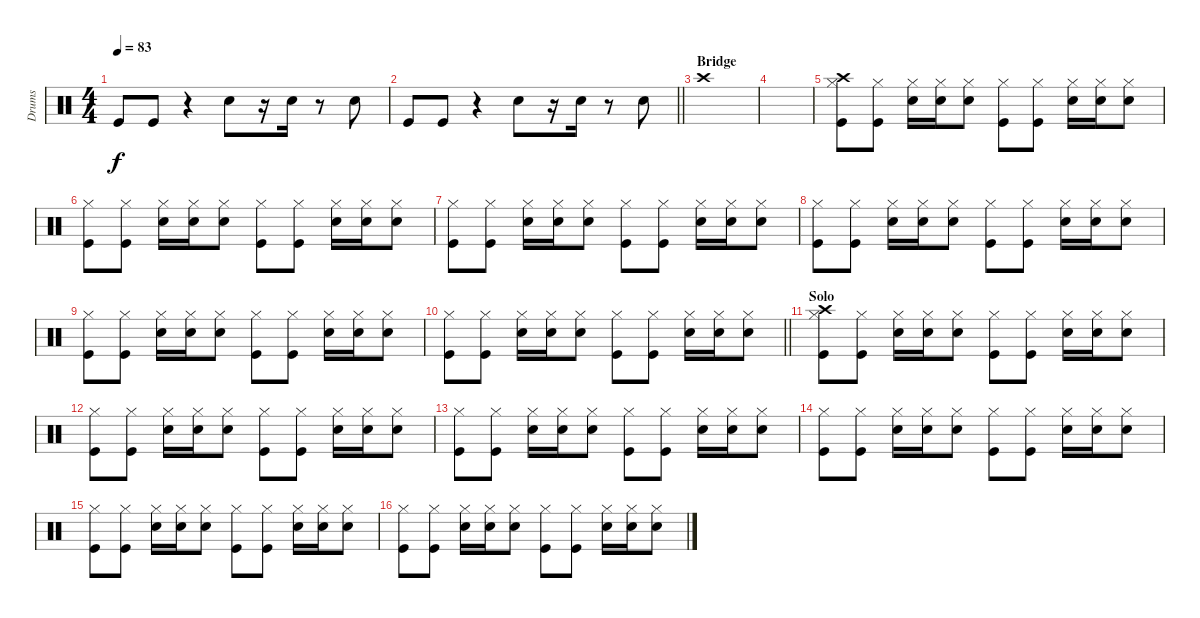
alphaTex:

\track ("Drums" "Drums") {instrument percussion}
\staff {score}
\articulation defaults
\ts (4 4)
\tempo 83
\clef neutral
\ks c "Kick (hit)".8{dy f} "Kick (hit)".8
r.4 "Snare (hit) 2".8 r.16 "Electric Snare (hit)".16 r.8 "Electric Snare (hit)".8 |
\barLineRight lightlight "Kick (hit)".8 "Kick (hit)".8
r.4 "Snare (hit) 2".8 r.16 "Electric Snare (hit)".16 r.8 "Electric Snare (hit)".8 |
\section ("" "Bridge")
"Crash high (hit)".1 |
|
("Crash high (hit)" "Hi-Hat (closed)" "Kick (hit)").8 ("Hi-Hat (closed)" "Kick (hit)").8 ("Hi-Hat (closed)" "Electric Snare (hit)").16 ("Hi-Hat (closed)" "Snare (hit) 2").16 ("Hi-Hat (closed)" "Snare (hit) 2").8 ("Hi-Hat (closed)" "Kick (hit)").8 ("Hi-Hat (closed)" "Kick (hit)").8 ("Hi-Hat (closed)" "Electric Snare (hit)").16 ("Hi-Hat (closed)" "Snare (hit) 2").16 ("Hi-Hat (closed)" "Snare (hit) 2").8 |
("Hi-Hat (closed)" "Kick (hit)").8 ("Hi-Hat (closed)" "Kick (hit)").8 ("Hi-Hat (closed)" "Electric Snare (hit)").16 ("Hi-Hat (closed)" "Snare (hit) 2").16 ("Hi-Hat (closed)" "Snare (hit) 2").8 ("Hi-Hat (closed)" "Kick (hit)").8 ("Hi-Hat (closed)" "Kick (hit)").8 ("Hi-Hat (closed)" "Electric Snare (hit)").16 ("Hi-Hat (closed)" "Snare (hit) 2").16 ("Hi-Hat (closed)" "Snare (hit) 2").8 |
("Hi-Hat (closed)" "Kick (hit)").8 ("Hi-Hat (closed)" "Kick (hit)").8 ("Hi-Hat (closed)" "Electric Snare (hit)").16 ("Hi-Hat (closed)" "Snare (hit) 2").16 ("Hi-Hat (closed)" "Snare (hit) 2").8 ("Hi-Hat (closed)" "Kick (hit)").8 ("Hi-Hat (closed)" "Kick (hit)").8 ("Hi-Hat (closed)" "Electric Snare (hit)").16 ("Hi-Hat (closed)" "Snare (hit) 2").16 ("Hi-Hat (closed)" "Snare (hit) 2").8 |
("Hi-Hat (closed)" "Kick (hit)").8 ("Hi-Hat (closed)" "Kick (hit)").8 ("Hi-Hat (closed)" "Electric Snare (hit)").16 ("Hi-Hat (closed)" "Snare (hit) 2").16 ("Hi-Hat (closed)" "Snare (hit) 2").8 ("Hi-Hat (closed)" "Kick (hit)").8 ("Hi-Hat (closed)" "Kick (hit)").8 ("Hi-Hat (closed)" "Electric Snare (hit)").16 ("Hi-Hat (closed)" "Snare (hit) 2").16 ("Hi-Hat (closed)" "Snare (hit) 2").8 |
("Hi-Hat (closed)" "Kick (hit)").8 ("Hi-Hat (closed)" "Kick (hit)").8 ("Hi-Hat (closed)" "Electric Snare (hit)").16 ("Hi-Hat (closed)" "Snare (hit) 2").16 ("Hi-Hat (closed)" "Snare (hit) 2").8 ("Hi-Hat (closed)" "Kick (hit)").8 ("Hi-Hat (closed)" "Kick (hit)").8 ("Hi-Hat (closed)" "Electric Snare (hit)").16 ("Hi-Hat (closed)" "Snare (hit) 2").16 ("Hi-Hat (closed)" "Snare (hit) 2").8 |
\barLineRight lightlight
("Hi-Hat (closed)" "Kick (hit)").8 ("Hi-Hat (closed)" "Kick (hit)").8 ("Hi-Hat (closed)" "Electric Snare (hit)").16 ("Hi-Hat (closed)" "Snare (hit) 2").16 ("Hi-Hat (closed)" "Snare (hit) 2").8 ("Hi-Hat (closed)" "Kick (hit)").8 ("Hi-Hat (closed)" "Kick (hit)").8 ("Hi-Hat (closed)" "Electric Snare (hit)").16 ("Hi-Hat (closed)" "Snare (hit) 2").16 ("Hi-Hat (closed)" "Snare (hit) 2").8 |
\section ("" "Solo")
("Crash high (hit)" "Hi-Hat (closed)" "Kick (hit)").8 ("Hi-Hat (closed)" "Kick (hit)").8 ("Hi-Hat (closed)" "Electric Snare (hit)").16 ("Hi-Hat (closed)" "Snare (hit) 2").16 ("Hi-Hat (closed)" "Snare (hit) 2").8 ("Hi-Hat (closed)" "Kick (hit)").8 ("Hi-Hat (closed)" "Kick (hit)").8 ("Hi-Hat (closed)" "Electric Snare (hit)").16 ("Hi-Hat (closed)" "Snare (hit) 2").16 ("Hi-Hat (closed)" "Snare (hit) 2").8 |
("Hi-Hat (closed)" "Kick (hit)").8 ("Hi-Hat (closed)" "Kick (hit)").8 ("Hi-Hat (closed)" "Electric Snare (hit)").16 ("Hi-Hat (closed)" "Snare (hit) 2").16 ("Hi-Hat (closed)" "Snare (hit) 2").8 ("Hi-Hat (closed)" "Kick (hit)").8 ("Hi-Hat (closed)" "Kick (hit)").8 ("Hi-Hat (closed)" "Electric Snare (hit)").16 ("Hi-Hat (closed)" "Snare (hit) 2").16 ("Hi-Hat (closed)" "Snare (hit) 2").8 |
("Hi-Hat (closed)" "Kick (hit)").8 ("Hi-Hat (closed)" "Kick (hit)").8 ("Hi-Hat (closed)" "Electric Snare (hit)").16 ("Hi-Hat (closed)" "Snare (hit) 2").16 ("Hi-Hat (closed)" "Snare (hit) 2").8 ("Hi-Hat (closed)" "Kick (hit)").8 ("Hi-Hat (closed)" "Kick (hit)").8 ("Hi-Hat (closed)" "Electric Snare (hit)").16 ("Hi-Hat (closed)" "Snare (hit) 2").16 ("Hi-Hat (closed)" "Snare (hit) 2").8 |
("Hi-Hat (closed)" "Kick (hit)").8 ("Hi-Hat (closed)" "Kick (hit)").8 ("Hi-Hat (closed)" "Electric Snare (hit)").16 ("Hi-Hat (closed)" "Snare (hit) 2").16 ("Hi-Hat (closed)" "Snare (hit) 2").8 ("Hi-Hat (closed)" "Kick (hit)").8 ("Hi-Hat (closed)" "Kick (hit)").8 ("Hi-Hat (closed)" "Electric Snare (hit)").16 ("Hi-Hat (closed)" "Snare (hit) 2").16 ("Hi-Hat (closed)" "Snare (hit) 2").8 |
("Hi-Hat (closed)" "Kick (hit)").8 ("Hi-Hat (closed)" "Kick (hit)").8 ("Hi-Hat (closed)" "Electric Snare (hit)").16 ("Hi-Hat (closed)" "Snare (hit) 2").16 ("Hi-Hat (closed)" "Snare (hit) 2").8 ("Hi-Hat (closed)" "Kick (hit)").8 ("Hi-Hat (closed)" "Kick (hit)").8 ("Hi-Hat (closed)" "Electric Snare (hit)").16 ("Hi-Hat (closed)" "Snare (hit) 2").16 ("Hi-Hat (closed)" "Snare (hit) 2").8 |
("Hi-Hat (closed)" "Kick (hit)").8 ("Hi-Hat (closed)" "Kick (hit)").8 ("Hi-Hat (closed)" "Electric Snare (hit)").16 ("Hi-Hat (closed)" "Snare (hit) 2").16 ("Hi-Hat (closed)" "Snare (hit) 2").8 ("Hi-Hat (closed)" "Kick (hit)").8 ("Hi-Hat (closed)" "Kick (hit)").8 ("Hi-Hat (closed)" "Electric Snare (hit)").16 ("Hi-Hat (closed)" "Snare (hit) 2").16 ("Hi-Hat (closed)" "Snare (hit) 2").8
